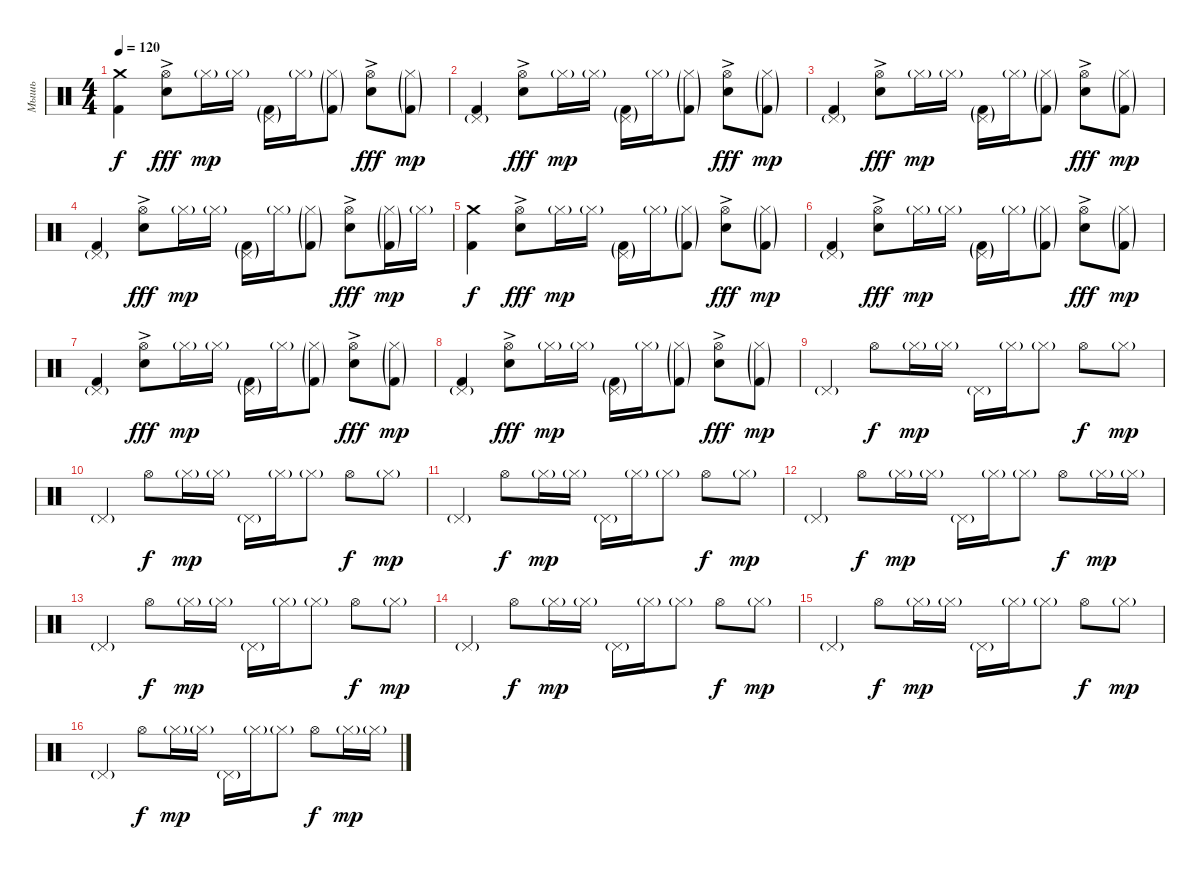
\track ("Мышь" "Мышь") {instrument percussion}
\staff {score}
\articulation defaults
\ts (4 4)
\tempo 120
\clef neutral
\ks c
("Crash medium (hit)" "Kick (hit) 2").4{dy f} ("Hi-Hat (open)" "Electric Snare (hit)"{ac}).8{dy fff} "Hi-Hat (closed)"{g}.16{dy mp} "Hi-Hat (closed)"{g}.16 ("Pedal Hi-Hat (hit)"{g} "Kick (hit) 2"{g}).16 "Hi-Hat (closed)"{g}.16 ("Hi-Hat (closed)"{g} "Kick (hit) 2"{g}).8 ("Hi-Hat (open)" "Electric Snare (hit)"{ac}).8{dy fff} ("Hi-Hat (closed)"{g} "Kick (hit) 2"{g}).8{dy mp} |
("Pedal Hi-Hat (hit)"{g} "Kick (hit) 2").4 ("Hi-Hat (open)" "Electric Snare (hit)"{ac}).8{dy fff} "Hi-Hat (closed)"{g}.16{dy mp} "Hi-Hat (closed)"{g}.16 ("Pedal Hi-Hat (hit)"{g} "Kick (hit) 2"{g}).16 "Hi-Hat (closed)"{g}.16 ("Hi-Hat (closed)"{g} "Kick (hit) 2"{g}).8 ("Hi-Hat (open)" "Electric Snare (hit)"{ac}).8{dy fff} ("Hi-Hat (closed)"{g} "Kick (hit) 2"{g}).8{dy mp} |
("Pedal Hi-Hat (hit)"{g} "Kick (hit) 2").4 ("Hi-Hat (open)" "Electric Snare (hit)"{ac}).8{dy fff} "Hi-Hat (closed)"{g}.16{dy mp} "Hi-Hat (closed)"{g}.16 ("Pedal Hi-Hat (hit)"{g} "Kick (hit) 2"{g}).16 "Hi-Hat (closed)"{g}.16 ("Hi-Hat (closed)"{g} "Kick (hit) 2"{g}).8 ("Hi-Hat (open)" "Electric Snare (hit)"{ac}).8{dy fff} ("Hi-Hat (closed)"{g} "Kick (hit) 2"{g}).8{dy mp} |
("Pedal Hi-Hat (hit)"{g} "Kick (hit) 2").4 ("Hi-Hat (open)" "Electric Snare (hit)"{ac}).8{dy fff} "Hi-Hat (closed)"{g}.16{dy mp} "Hi-Hat (closed)"{g}.16 ("Pedal Hi-Hat (hit)"{g} "Kick (hit) 2"{g}).16 "Hi-Hat (closed)"{g}.16 ("Hi-Hat (closed)"{g} "Kick (hit) 2"{g}).8 ("Hi-Hat (open)" "Electric Snare (hit)"{ac}).8{dy fff} ("Hi-Hat (closed)"{g} "Kick (hit) 2"{g}).16{dy mp} "Hi-Hat (closed)"{g}.16 |
("Crash medium (hit)" "Kick (hit) 2").4{dy f} ("Hi-Hat (open)" "Electric Snare (hit)"{ac}).8{dy fff} "Hi-Hat (closed)"{g}.16{dy mp} "Hi-Hat (closed)"{g}.16 ("Pedal Hi-Hat (hit)"{g} "Kick (hit) 2"{g}).16 "Hi-Hat (closed)"{g}.16 ("Hi-Hat (closed)"{g} "Kick (hit) 2"{g}).8 ("Hi-Hat (open)" "Electric Snare (hit)"{ac}).8{dy fff} ("Hi-Hat (closed)"{g} "Kick (hit) 2"{g}).8{dy mp} |
("Pedal Hi-Hat (hit)"{g} "Kick (hit) 2").4 ("Hi-Hat (open)" "Electric Snare (hit)"{ac}).8{dy fff} "Hi-Hat (closed)"{g}.16{dy mp} "Hi-Hat (closed)"{g}.16 ("Pedal Hi-Hat (hit)"{g} "Kick (hit) 2"{g}).16 "Hi-Hat (closed)"{g}.16 ("Hi-Hat (closed)"{g} "Kick (hit) 2"{g}).8 ("Hi-Hat (open)" "Electric Snare (hit)"{ac}).8{dy fff} ("Hi-Hat (closed)"{g} "Kick (hit) 2"{g}).8{dy mp} |
("Pedal Hi-Hat (hit)"{g} "Kick (hit) 2").4 ("Hi-Hat (open)" "Electric Snare (hit)"{ac}).8{dy fff} "Hi-Hat (closed)"{g}.16{dy mp} "Hi-Hat (closed)"{g}.16 ("Pedal Hi-Hat (hit)"{g} "Kick (hit) 2"{g}).16 "Hi-Hat (closed)"{g}.16 ("Hi-Hat (closed)"{g} "Kick (hit) 2"{g}).8 ("Hi-Hat (open)" "Electric Snare (hit)"{ac}).8{dy fff} ("Hi-Hat (closed)"{g} "Kick (hit) 2"{g}).8{dy mp} |
("Pedal Hi-Hat (hit)"{g} "Kick (hit) 2").4 ("Hi-Hat (open)" "Electric Snare (hit)"{ac}).8{dy fff} "Hi-Hat (closed)"{g}.16{dy mp} "Hi-Hat (closed)"{g}.16 ("Pedal Hi-Hat (hit)"{g} "Kick (hit) 2"{g}).16 "Hi-Hat (closed)"{g}.16 ("Hi-Hat (closed)"{g} "Kick (hit) 2"{g}).8 ("Hi-Hat (open)" "Electric Snare (hit)"{ac}).8{dy fff} ("Hi-Hat (closed)"{g} "Kick (hit) 2"{g}).8{dy mp} |
"Pedal Hi-Hat (hit)"{g}.4 "Hi-Hat (open)".8{dy f} "Hi-Hat (closed)"{g}.16{dy mp} "Hi-Hat (closed)"{g}.16 "Pedal Hi-Hat (hit)"{g}.16 "Hi-Hat (closed)"{g}.16 "Hi-Hat (closed)"{g}.8 "Hi-Hat (open)".8{dy f} "Hi-Hat (closed)"{g}.8{dy mp} |
"Pedal Hi-Hat (hit)"{g}.4 "Hi-Hat (open)".8{dy f} "Hi-Hat (closed)"{g}.16{dy mp} "Hi-Hat (closed)"{g}.16 "Pedal Hi-Hat (hit)"{g}.16 "Hi-Hat (closed)"{g}.16 "Hi-Hat (closed)"{g}.8 "Hi-Hat (open)".8{dy f} "Hi-Hat (closed)"{g}.8{dy mp} |
"Pedal Hi-Hat (hit)"{g}.4 "Hi-Hat (open)".8{dy f} "Hi-Hat (closed)"{g}.16{dy mp} "Hi-Hat (closed)"{g}.16 "Pedal Hi-Hat (hit)"{g}.16 "Hi-Hat (closed)"{g}.16 "Hi-Hat (closed)"{g}.8 "Hi-Hat (open)".8{dy f} "Hi-Hat (closed)"{g}.8{dy mp} |
"Pedal Hi-Hat (hit)"{g}.4 "Hi-Hat (open)".8{dy f} "Hi-Hat (closed)"{g}.16{dy mp} "Hi-Hat (closed)"{g}.16 "Pedal Hi-Hat (hit)"{g}.16 "Hi-Hat (closed)"{g}.16 "Hi-Hat (closed)"{g}.8 "Hi-Hat (open)".8{dy f} "Hi-Hat (closed)"{g}.16{dy mp} "Hi-Hat (closed)"{g}.16 |
"Pedal Hi-Hat (hit)"{g}.4 "Hi-Hat (open)".8{dy f} "Hi-Hat (closed)"{g}.16{dy mp} "Hi-Hat (closed)"{g}.16 "Pedal Hi-Hat (hit)"{g}.16 "Hi-Hat (closed)"{g}.16 "Hi-Hat (closed)"{g}.8 "Hi-Hat (open)".8{dy f} "Hi-Hat (closed)"{g}.8{dy mp} |
"Pedal Hi-Hat (hit)"{g}.4 "Hi-Hat (open)".8{dy f} "Hi-Hat (closed)"{g}.16{dy mp} "Hi-Hat (closed)"{g}.16 "Pedal Hi-Hat (hit)"{g}.16 "Hi-Hat (closed)"{g}.16 "Hi-Hat (closed)"{g}.8 "Hi-Hat (open)".8{dy f} "Hi-Hat (closed)"{g}.8{dy mp} |
"Pedal Hi-Hat (hit)"{g}.4 "Hi-Hat (open)".8{dy f} "Hi-Hat (closed)"{g}.16{dy mp} "Hi-Hat (closed)"{g}.16 "Pedal Hi-Hat (hit)"{g}.16 "Hi-Hat (closed)"{g}.16 "Hi-Hat (closed)"{g}.8 "Hi-Hat (open)".8{dy f} "Hi-Hat (closed)"{g}.8{dy mp} |
"Pedal Hi-Hat (hit)"{g}.4 "Hi-Hat (open)".8{dy f} "Hi-Hat (closed)"{g}.16{dy mp} "Hi-Hat (closed)"{g}.16 "Pedal Hi-Hat (hit)"{g}.16 "Hi-Hat (closed)"{g}.16 "Hi-Hat (closed)"{g}.8 "Hi-Hat (open)".8{dy f} "Hi-Hat (closed)"{g}.16{dy mp} "Hi-Hat (closed)"{g}.16
